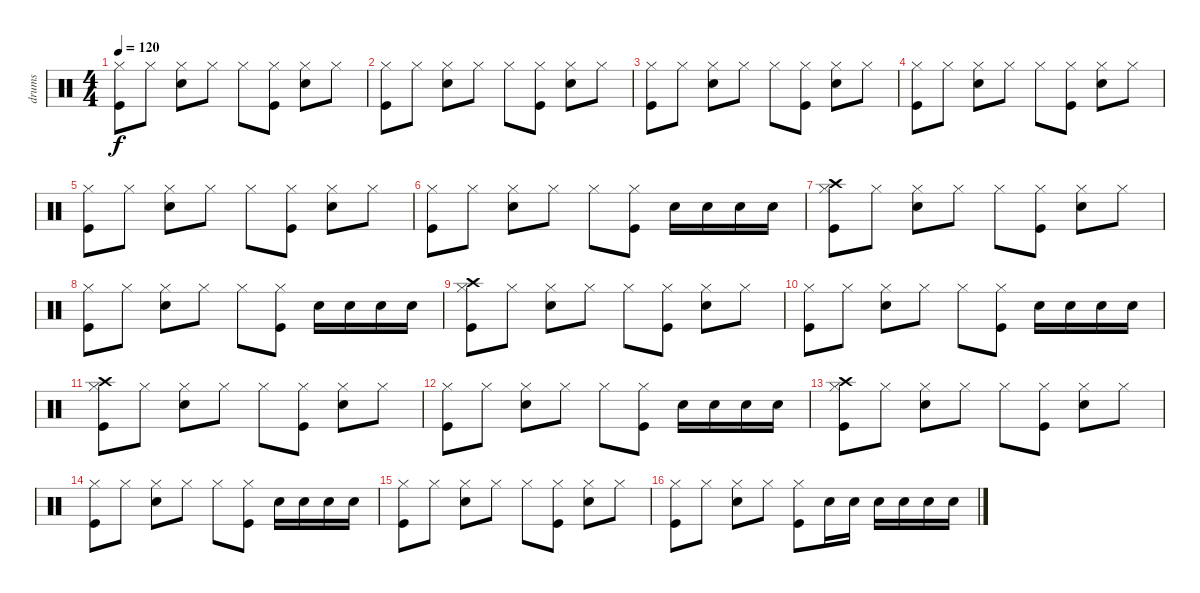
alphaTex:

\track ("drums" "drums") {instrument percussion}
\staff {score}
\articulation defaults
\ts (4 4)
\tempo 120
\clef neutral
\ks c
("Kick (hit)" "Hi-Hat (closed)").8{dy f} "Hi-Hat (closed)".8 ("Snare (hit) 2" "Hi-Hat (closed)").8 "Hi-Hat (closed)".8 "Hi-Hat (closed)".8 ("Kick (hit)" "Hi-Hat (closed)").8 ("Snare (hit) 2" "Hi-Hat (closed)").8 "Hi-Hat (closed)".8 |
("Kick (hit)" "Hi-Hat (closed)").8 "Hi-Hat (closed)".8 ("Snare (hit) 2" "Hi-Hat (closed)").8 "Hi-Hat (closed)".8 "Hi-Hat (closed)".8 ("Kick (hit)" "Hi-Hat (closed)").8 ("Snare (hit) 2" "Hi-Hat (closed)").8 "Hi-Hat (closed)".8 |
("Kick (hit)" "Hi-Hat (closed)").8 "Hi-Hat (closed)".8 ("Snare (hit) 2" "Hi-Hat (closed)").8 "Hi-Hat (closed)".8 "Hi-Hat (closed)".8 ("Kick (hit)" "Hi-Hat (closed)").8 ("Snare (hit) 2" "Hi-Hat (closed)").8 "Hi-Hat (closed)".8 |
("Kick (hit)" "Hi-Hat (closed)").8 "Hi-Hat (closed)".8 ("Snare (hit) 2" "Hi-Hat (closed)").8 "Hi-Hat (closed)".8 "Hi-Hat (closed)".8 ("Kick (hit)" "Hi-Hat (closed)").8 ("Snare (hit) 2" "Hi-Hat (closed)").8 "Hi-Hat (closed)".8 |
("Kick (hit)" "Hi-Hat (closed)").8 "Hi-Hat (closed)".8 ("Snare (hit) 2" "Hi-Hat (closed)").8 "Hi-Hat (closed)".8 "Hi-Hat (closed)".8 ("Kick (hit)" "Hi-Hat (closed)").8 ("Snare (hit) 2" "Hi-Hat (closed)").8 "Hi-Hat (closed)".8 |
("Kick (hit)" "Hi-Hat (closed)").8 "Hi-Hat (closed)".8 ("Snare (hit) 2" "Hi-Hat (closed)").8 "Hi-Hat (closed)".8 "Hi-Hat (closed)".8 ("Kick (hit)" "Hi-Hat (closed)").8 "Snare (hit) 2".16 "Snare (hit) 2".16 "Snare (hit) 2".16 "Snare (hit) 2".16 |
("Kick (hit)" "Crash high (hit)" "Hi-Hat (closed)").8 "Hi-Hat (closed)".8 ("Snare (hit) 2" "Hi-Hat (closed)").8 "Hi-Hat (closed)".8 "Hi-Hat (closed)".8 ("Kick (hit)" "Hi-Hat (closed)").8 ("Snare (hit) 2" "Hi-Hat (closed)").8 "Hi-Hat (closed)".8 |
("Kick (hit)" "Hi-Hat (closed)").8 "Hi-Hat (closed)".8 ("Snare (hit) 2" "Hi-Hat (closed)").8 "Hi-Hat (closed)".8 "Hi-Hat (closed)".8 ("Kick (hit)" "Hi-Hat (closed)").8 "Snare (hit) 2".16 "Snare (hit) 2".16 "Snare (hit) 2".16 "Snare (hit) 2".16 |
("Kick (hit)" "Crash high (hit)" "Hi-Hat (closed)").8 "Hi-Hat (closed)".8 ("Snare (hit) 2" "Hi-Hat (closed)").8 "Hi-Hat (closed)".8 "Hi-Hat (closed)".8 ("Kick (hit)" "Hi-Hat (closed)").8 ("Snare (hit) 2" "Hi-Hat (closed)").8 "Hi-Hat (closed)".8 |
("Kick (hit)" "Hi-Hat (closed)").8 "Hi-Hat (closed)".8 ("Snare (hit) 2" "Hi-Hat (closed)").8 "Hi-Hat (closed)".8 "Hi-Hat (closed)".8 ("Kick (hit)" "Hi-Hat (closed)").8 "Snare (hit) 2".16 "Snare (hit) 2".16 "Snare (hit) 2".16 "Snare (hit) 2".16 |
("Kick (hit)" "Crash high (hit)" "Hi-Hat (closed)").8 "Hi-Hat (closed)".8 ("Snare (hit) 2" "Hi-Hat (closed)").8 "Hi-Hat (closed)".8 "Hi-Hat (closed)".8 ("Kick (hit)" "Hi-Hat (closed)").8 ("Snare (hit) 2" "Hi-Hat (closed)").8 "Hi-Hat (closed)".8 |
("Kick (hit)" "Hi-Hat (closed)").8 "Hi-Hat (closed)".8 ("Snare (hit) 2" "Hi-Hat (closed)").8 "Hi-Hat (closed)".8 "Hi-Hat (closed)".8 ("Kick (hit)" "Hi-Hat (closed)").8 "Snare (hit) 2".16 "Snare (hit) 2".16 "Snare (hit) 2".16 "Snare (hit) 2".16 |
("Kick (hit)" "Crash high (hit)" "Hi-Hat (closed)").8 "Hi-Hat (closed)".8 ("Snare (hit) 2" "Hi-Hat (closed)").8 "Hi-Hat (closed)".8 "Hi-Hat (closed)".8 ("Kick (hit)" "Hi-Hat (closed)").8 ("Snare (hit) 2" "Hi-Hat (closed)").8 "Hi-Hat (closed)".8 |
("Kick (hit)" "Hi-Hat (closed)").8 "Hi-Hat (closed)".8 ("Snare (hit) 2" "Hi-Hat (closed)").8 "Hi-Hat (closed)".8 "Hi-Hat (closed)".8 ("Kick (hit)" "Hi-Hat (closed)").8 "Snare (hit) 2".16 "Snare (hit) 2".16 "Snare (hit) 2".16 "Snare (hit) 2".16 |
("Kick (hit)" "Hi-Hat (closed)").8 "Hi-Hat (closed)".8 ("Snare (hit) 2" "Hi-Hat (closed)").8 "Hi-Hat (closed)".8 "Hi-Hat (closed)".8 ("Kick (hit)" "Hi-Hat (closed)").8 ("Snare (hit) 2" "Hi-Hat (closed)").8 "Hi-Hat (closed)".8 |
("Kick (hit)" "Hi-Hat (closed)").8 "Hi-Hat (closed)".8 ("Snare (hit) 2" "Hi-Hat (closed)").8 "Hi-Hat (closed)".8 ("Kick (hit)" "Hi-Hat (closed)").8 "Snare (hit) 2".16 "Snare (hit) 2".16 "Snare (hit) 2".16 "Snare (hit) 2".16 "Snare (hit) 2".16 "Snare (hit) 2".16
